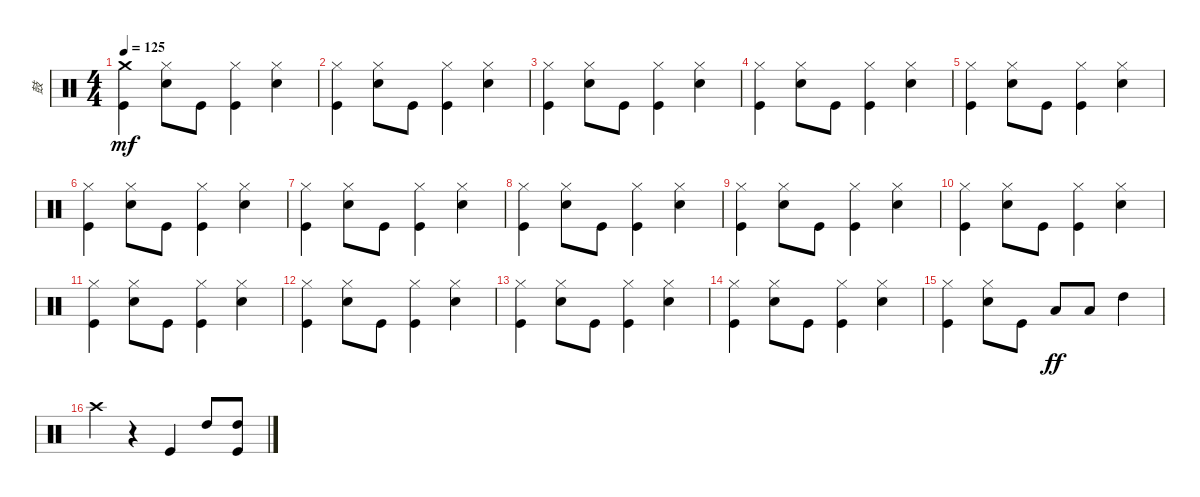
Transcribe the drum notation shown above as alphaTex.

\track ("鼓" "鼓") {instrument percussion}
\staff {score}
\articulation defaults
\ts (4 4)
\tempo 125
\clef neutral
\ks c
("Kick (hit)" "Crash medium (hit)").4{dy mf} ("Snare (hit) 2" "Hi-Hat (closed)").8 "Kick (hit)".8 ("Kick (hit)" "Hi-Hat (closed)").4 ("Snare (hit) 2" "Hi-Hat (closed)").4 |
("Kick (hit)" "Hi-Hat (closed)").4 ("Snare (hit) 2" "Hi-Hat (closed)").8 "Kick (hit)".8 ("Kick (hit)" "Hi-Hat (closed)").4 ("Snare (hit) 2" "Hi-Hat (closed)").4 |
("Kick (hit)" "Hi-Hat (closed)").4 ("Snare (hit) 2" "Hi-Hat (closed)").8 "Kick (hit)".8 ("Kick (hit)" "Hi-Hat (closed)").4 ("Snare (hit) 2" "Hi-Hat (closed)").4 |
("Kick (hit)" "Hi-Hat (closed)").4 ("Snare (hit) 2" "Hi-Hat (closed)").8 "Kick (hit)".8 ("Kick (hit)" "Hi-Hat (closed)").4 ("Snare (hit) 2" "Hi-Hat (closed)").4 |
("Kick (hit)" "Hi-Hat (closed)").4 ("Snare (hit) 2" "Hi-Hat (closed)").8 "Kick (hit)".8 ("Kick (hit)" "Hi-Hat (closed)").4 ("Snare (hit) 2" "Hi-Hat (closed)").4 |
("Kick (hit)" "Hi-Hat (closed)").4 ("Snare (hit) 2" "Hi-Hat (closed)").8 "Kick (hit)".8 ("Kick (hit)" "Hi-Hat (closed)").4 ("Snare (hit) 2" "Hi-Hat (closed)").4 |
("Kick (hit)" "Hi-Hat (closed)").4 ("Snare (hit) 2" "Hi-Hat (closed)").8 "Kick (hit)".8 ("Kick (hit)" "Hi-Hat (closed)").4 ("Snare (hit) 2" "Hi-Hat (closed)").4 |
("Kick (hit)" "Hi-Hat (closed)").4 ("Snare (hit) 2" "Hi-Hat (closed)").8 "Kick (hit)".8 ("Kick (hit)" "Hi-Hat (closed)").4 ("Snare (hit) 2" "Hi-Hat (closed)").4 |
("Kick (hit)" "Hi-Hat (closed)").4 ("Snare (hit) 2" "Hi-Hat (closed)").8 "Kick (hit)".8 ("Kick (hit)" "Hi-Hat (closed)").4 ("Snare (hit) 2" "Hi-Hat (closed)").4 |
("Kick (hit)" "Hi-Hat (closed)").4 ("Snare (hit) 2" "Hi-Hat (closed)").8 "Kick (hit)".8 ("Kick (hit)" "Hi-Hat (closed)").4 ("Snare (hit) 2" "Hi-Hat (closed)").4 |
("Kick (hit)" "Hi-Hat (closed)").4 ("Snare (hit) 2" "Hi-Hat (closed)").8 "Kick (hit)".8 ("Kick (hit)" "Hi-Hat (closed)").4 ("Snare (hit) 2" "Hi-Hat (closed)").4 |
("Kick (hit)" "Hi-Hat (closed)").4 ("Snare (hit) 2" "Hi-Hat (closed)").8 "Kick (hit)".8 ("Kick (hit)" "Hi-Hat (closed)").4 ("Snare (hit) 2" "Hi-Hat (closed)").4 |
("Kick (hit)" "Hi-Hat (closed)").4 ("Snare (hit) 2" "Hi-Hat (closed)").8 "Kick (hit)".8 ("Kick (hit)" "Hi-Hat (closed)").4 ("Snare (hit) 2" "Hi-Hat (closed)").4 |
("Kick (hit)" "Hi-Hat (closed)").4 ("Snare (hit) 2" "Hi-Hat (closed)").8 "Kick (hit)".8 ("Kick (hit)" "Hi-Hat (closed)").4 ("Snare (hit) 2" "Hi-Hat (closed)").4 |
("Kick (hit)" "Hi-Hat (closed)").4 ("Snare (hit) 2" "Hi-Hat (closed)").8 "Kick (hit)".8 "Low Tom (hit)".8{dy ff} "Low Tom (hit)".8 "High Tom (hit)".4 |
"Crash high (hit)".4 r.4 "Kick (hit)".4 "High Tom (hit)".8 ("High Tom (hit)" "Kick (hit)").8
